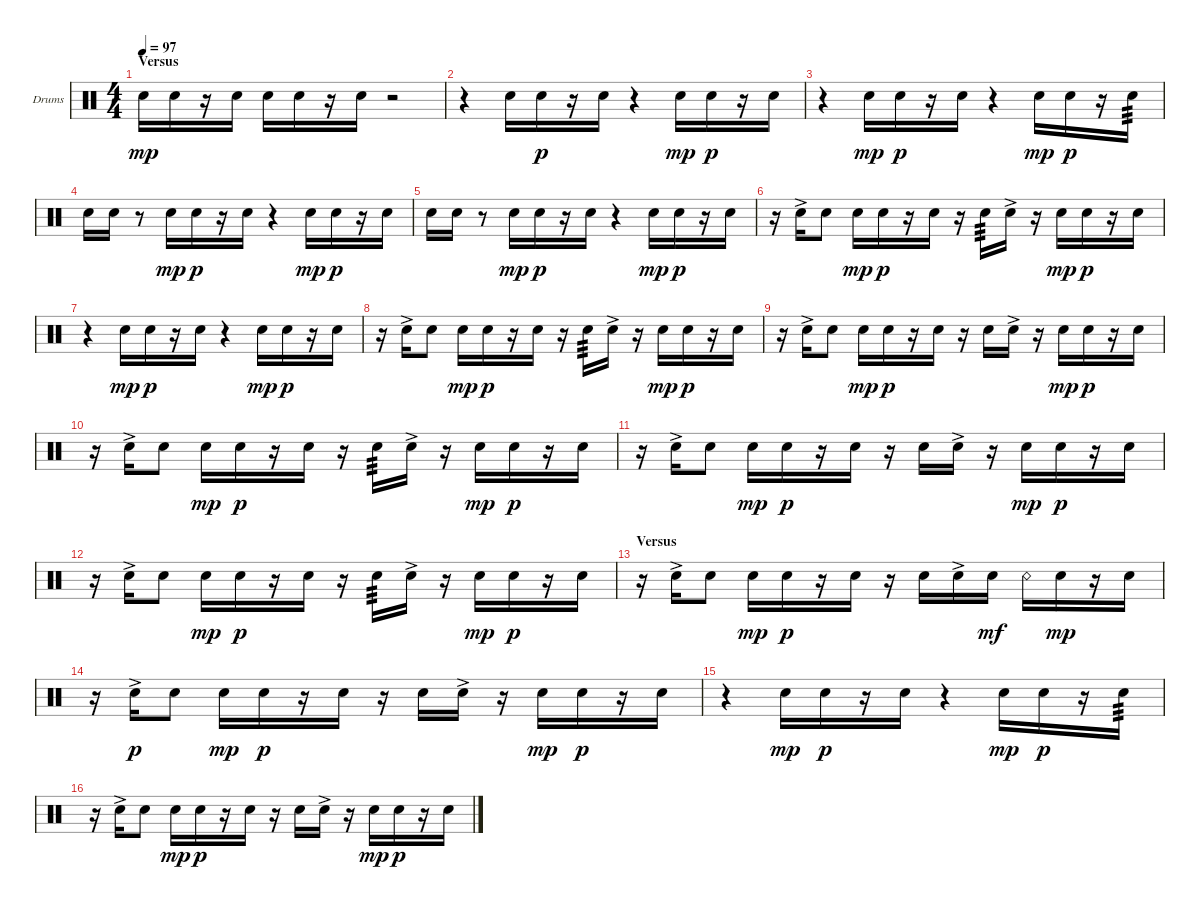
\bracketExtendMode groupsimilarinstruments
\firstSystemTrackNameOrientation horizontal
\otherSystemsTrackNameOrientation horizontal
\track ("Snare" "Drums") {instrument percussion}
\staff {score}
\articulation defaults
\ts (4 4)
\section ("" "Versus")
\tempo 97
\clef neutral
\ks c "Snare (hit) 2".16{dy mp} "Snare (hit) 2".16
r.16 "Snare (hit) 2".16 "Snare (hit) 2".16 "Snare (hit) 2".16 r.16 "Snare (hit) 2".16 r.2 |
r.4 "Snare (hit) 2".16 "Snare (hit) 2".16{dy p} r.16 "Snare (hit) 2".16 r.4 "Snare (hit) 2".16{dy mp} "Snare (hit) 2".16{dy p} r.16 "Snare (hit) 2".16 |
r.4 "Snare (hit) 2".16{dy mp} "Snare (hit) 2".16{dy p} r.16 "Snare (hit) 2".16 r.4 "Snare (hit) 2".16{dy mp} "Snare (hit) 2".16{dy p} r.16 "Snare (hit) 2".16{tp 3} |
"Snare (hit) 2".16 "Snare (hit) 2".16 r.8 "Snare (hit) 2".16{dy mp} "Snare (hit) 2".16{dy p} r.16 "Snare (hit) 2".16 r.4 "Snare (hit) 2".16{dy mp} "Snare (hit) 2".16{dy p} r.16 "Snare (hit) 2".16 |
"Snare (hit) 2".16 "Snare (hit) 2".16 r.8 "Snare (hit) 2".16{dy mp} "Snare (hit) 2".16{dy p} r.16 "Snare (hit) 2".16 r.4 "Snare (hit) 2".16{dy mp} "Snare (hit) 2".16{dy p} r.16 "Snare (hit) 2".16 |
r.16 "Snare (hit) 2"{ac}.16 "Snare (hit) 2".8 "Snare (hit) 2".16{dy mp} "Snare (hit) 2".16{dy p} r.16 "Snare (hit) 2".16 r.16 "Snare (hit) 2".16{tp 3} "Snare (hit) 2"{ac}.16 r.16 "Snare (hit) 2".16{dy mp} "Snare (hit) 2".16{dy p} r.16 "Snare (hit) 2".16 |
r.4 "Snare (hit) 2".16{dy mp} "Snare (hit) 2".16{dy p} r.16 "Snare (hit) 2".16 r.4 "Snare (hit) 2".16{dy mp} "Snare (hit) 2".16{dy p} r.16 "Snare (hit) 2".16 |
r.16 "Snare (hit) 2"{ac}.16 "Snare (hit) 2".8 "Snare (hit) 2".16{dy mp} "Snare (hit) 2".16{dy p} r.16 "Snare (hit) 2".16 r.16 "Snare (hit) 2".16{tp 3} "Snare (hit) 2"{ac}.16 r.16 "Snare (hit) 2".16{dy mp} "Snare (hit) 2".16{dy p} r.16 "Snare (hit) 2".16 |
r.16 "Snare (hit) 2"{ac}.16 "Snare (hit) 2".8 "Snare (hit) 2".16{dy mp} "Snare (hit) 2".16{dy p} r.16 "Snare (hit) 2".16 r.16 "Snare (hit) 2".16 "Snare (hit) 2"{ac}.16 r.16 "Snare (hit) 2".16{dy mp} "Snare (hit) 2".16{dy p} r.16 "Snare (hit) 2".16 |
r.16 "Snare (hit) 2"{ac}.16 "Snare (hit) 2".8 "Snare (hit) 2".16{dy mp} "Snare (hit) 2".16{dy p} r.16 "Snare (hit) 2".16 r.16 "Snare (hit) 2".16{tp 3} "Snare (hit) 2"{ac}.16 r.16 "Snare (hit) 2".16{dy mp} "Snare (hit) 2".16{dy p} r.16 "Snare (hit) 2".16 |
r.16 "Snare (hit) 2"{ac}.16 "Snare (hit) 2".8 "Snare (hit) 2".16{dy mp} "Snare (hit) 2".16{dy p} r.16 "Snare (hit) 2".16 r.16 "Snare (hit) 2".16 "Snare (hit) 2"{ac}.16 r.16 "Snare (hit) 2".16{dy mp} "Snare (hit) 2".16{dy p} r.16 "Snare (hit) 2".16 |
r.16 "Snare (hit) 2"{ac}.16 "Snare (hit) 2".8 "Snare (hit) 2".16{dy mp} "Snare (hit) 2".16{dy p} r.16 "Snare (hit) 2".16 r.16 "Snare (hit) 2".16{tp 3} "Snare (hit) 2"{ac}.16 r.16 "Snare (hit) 2".16{dy mp} "Snare (hit) 2".16{dy p} r.16 "Snare (hit) 2".16 |
\section ("" "Versus")
r.16 "Snare (hit) 2"{ac}.16 "Snare (hit) 2".8 "Snare (hit) 2".16{dy mp} "Snare (hit) 2".16{dy p} r.16 "Snare (hit) 2".16 r.16 "Snare (hit) 2".16 "Snare (hit) 2"{ac}.16 "Snare (hit) 2".16{dy mf} "Snare (rim shot)".16 "Snare (hit) 2".16{dy mp} r.16 "Snare (hit) 2".16 |
r.16 "Snare (hit) 2"{ac}.16{dy p} "Snare (hit) 2".8 "Snare (hit) 2".16{dy mp} "Snare (hit) 2".16{dy p} r.16 "Snare (hit) 2".16 r.16 "Snare (hit) 2".16 "Snare (hit) 2"{ac}.16 r.16 "Snare (hit) 2".16{dy mp} "Snare (hit) 2".16{dy p} r.16 "Snare (hit) 2".16 |
r.4 "Snare (hit) 2".16{dy mp} "Snare (hit) 2".16{dy p} r.16 "Snare (hit) 2".16 r.4 "Snare (hit) 2".16{dy mp} "Snare (hit) 2".16{dy p} r.16 "Snare (hit) 2".16{tp 3} |
r.16 "Snare (hit) 2"{ac}.16 "Snare (hit) 2".8 "Snare (hit) 2".16{dy mp} "Snare (hit) 2".16{dy p} r.16 "Snare (hit) 2".16 r.16 "Snare (hit) 2".16 "Snare (hit) 2"{ac}.16 r.16 "Snare (hit) 2".16{dy mp} "Snare (hit) 2".16{dy p} r.16 "Snare (hit) 2".16
